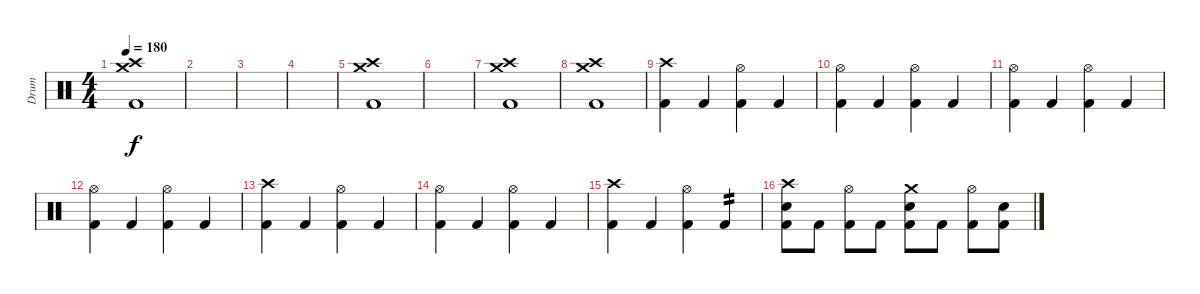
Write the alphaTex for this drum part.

\track ("Drum" "Drum") {instrument percussion}
\staff {score}
\articulation defaults
\ts (4 4)
\tempo 180
\clef neutral
\ks c
("Crash medium (hit)" "Crash high (hit)" "Kick (hit) 2").1{dy f} |
|
|
|
("Crash medium (hit)" "Crash high (hit)" "Kick (hit) 2").1 |
|
("Crash medium (hit)" "Crash high (hit)" "Kick (hit) 2").1 |
("Crash medium (hit)" "Crash high (hit)" "Kick (hit) 2").1 |
("Crash high (hit)" "Kick (hit) 2").4 "Kick (hit) 2".4 ("Hi-Hat (open)" "Kick (hit) 2").4 "Kick (hit) 2".4 |
("Hi-Hat (open)" "Kick (hit) 2").4 "Kick (hit) 2".4 ("Hi-Hat (open)" "Kick (hit) 2").4 "Kick (hit) 2".4 |
("Hi-Hat (open)" "Kick (hit) 2").4 "Kick (hit) 2".4 ("Hi-Hat (open)" "Kick (hit) 2").4 "Kick (hit) 2".4 |
("Hi-Hat (open)" "Kick (hit) 2").4 "Kick (hit) 2".4 ("Hi-Hat (open)" "Kick (hit) 2").4 "Kick (hit) 2".4 |
("Crash high (hit)" "Kick (hit) 2").4 "Kick (hit) 2".4 ("Hi-Hat (open)" "Kick (hit) 2").4 "Kick (hit) 2".4 |
("Hi-Hat (open)" "Kick (hit) 2").4 "Kick (hit) 2".4 ("Hi-Hat (open)" "Kick (hit) 2").4 "Kick (hit) 2".4 |
("Crash high (hit)" "Kick (hit) 2").4 "Kick (hit) 2".4 ("Hi-Hat (open)" "Kick (hit) 2").4 "Kick (hit) 2".4{tp 2} |
("Crash high (hit)" "Electric Snare (hit)" "Kick (hit) 2").8 "Kick (hit) 2".8 ("Hi-Hat (open)" "Kick (hit) 2").8 "Kick (hit) 2".8 ("Crash medium (hit)" "Electric Snare (hit)" "Kick (hit) 2").8 "Kick (hit) 2".8 ("Hi-Hat (open)" "Kick (hit) 2").8 ("Electric Snare (hit)" "Kick (hit) 2").8
